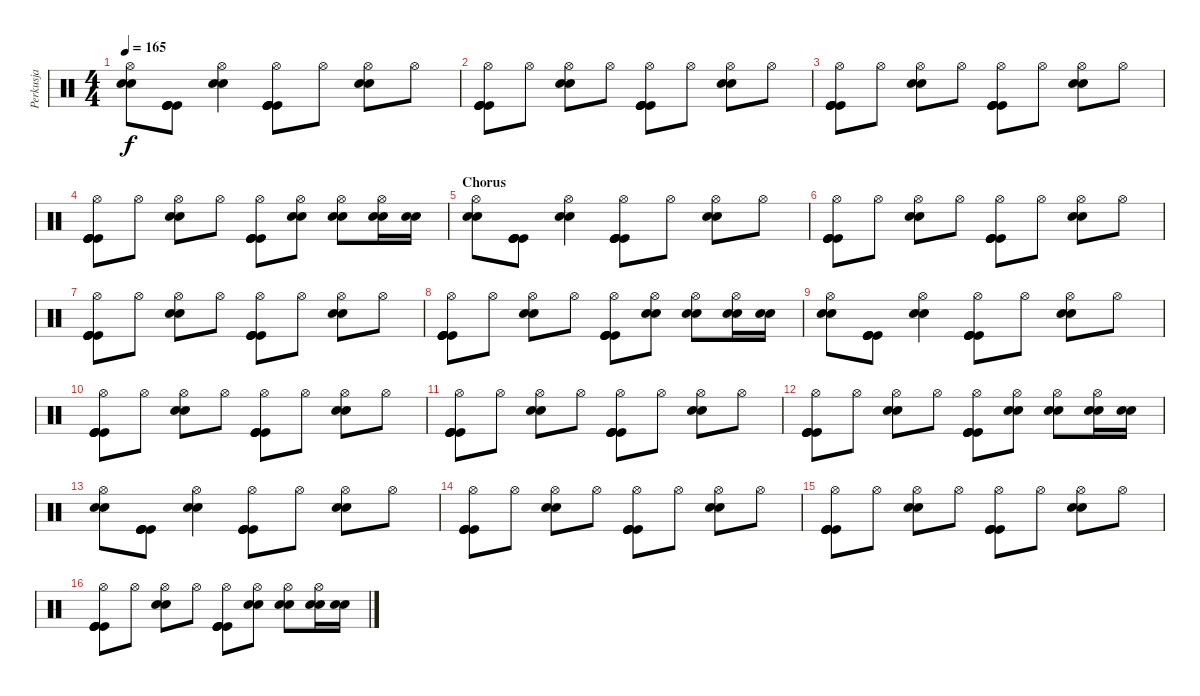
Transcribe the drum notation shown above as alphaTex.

\track ("Perkusja" "Perkusja") {instrument percussion}
\staff {score}
\articulation defaults
\ts (4 4)
\tempo 165
\clef neutral
\ks c
("Hi-Hat (open)" "Snare (hit) 2" "Snare (hit) 2").8{dy f} ("Kick (hit)" "Kick (hit)" "Kick (hit)" "Kick (hit)").8 ("Hi-Hat (open)" "Snare (hit) 2" "Snare (hit) 2").4 ("Hi-Hat (open)" "Kick (hit)" "Kick (hit)" "Kick (hit)" "Kick (hit)").8 "Hi-Hat (open)".8 ("Hi-Hat (open)" "Snare (hit) 2" "Snare (hit) 2").8 "Hi-Hat (open)".8 |
("Hi-Hat (open)" "Kick (hit)" "Kick (hit)" "Kick (hit)" "Kick (hit)").8 "Hi-Hat (open)".8 ("Hi-Hat (open)" "Snare (hit) 2" "Snare (hit) 2").8 "Hi-Hat (open)".8 ("Hi-Hat (open)" "Kick (hit)" "Kick (hit)" "Kick (hit)" "Kick (hit)").8 "Hi-Hat (open)".8 ("Hi-Hat (open)" "Snare (hit) 2" "Snare (hit) 2").8 "Hi-Hat (open)".8 |
("Hi-Hat (open)" "Kick (hit)" "Kick (hit)" "Kick (hit)" "Kick (hit)").8 "Hi-Hat (open)".8 ("Hi-Hat (open)" "Snare (hit) 2" "Snare (hit) 2").8 "Hi-Hat (open)".8 ("Hi-Hat (open)" "Kick (hit)" "Kick (hit)" "Kick (hit)" "Kick (hit)").8 "Hi-Hat (open)".8 ("Hi-Hat (open)" "Snare (hit) 2" "Snare (hit) 2").8 "Hi-Hat (open)".8 |
("Hi-Hat (open)" "Kick (hit)" "Kick (hit)" "Kick (hit)" "Kick (hit)").8 "Hi-Hat (open)".8 ("Hi-Hat (open)" "Snare (hit) 2" "Snare (hit) 2").8 "Hi-Hat (open)".8 ("Hi-Hat (open)" "Kick (hit)" "Kick (hit)" "Kick (hit)" "Kick (hit)").8 ("Hi-Hat (open)" "Snare (hit) 2" "Snare (hit) 2").8 ("Hi-Hat (open)" "Snare (hit) 2" "Snare (hit) 2").8 ("Hi-Hat (open)" "Snare (hit) 2" "Snare (hit) 2").16 ("Snare (hit) 2" "Snare (hit) 2").16 |
\section ("" "Chorus")
("Hi-Hat (open)" "Snare (hit) 2" "Snare (hit) 2").8 ("Kick (hit)" "Kick (hit)" "Kick (hit)" "Kick (hit)").8 ("Hi-Hat (open)" "Snare (hit) 2" "Snare (hit) 2").4 ("Hi-Hat (open)" "Kick (hit)" "Kick (hit)" "Kick (hit)" "Kick (hit)").8 "Hi-Hat (open)".8 ("Hi-Hat (open)" "Snare (hit) 2" "Snare (hit) 2").8 "Hi-Hat (open)".8 |
("Hi-Hat (open)" "Kick (hit)" "Kick (hit)" "Kick (hit)" "Kick (hit)").8 "Hi-Hat (open)".8 ("Hi-Hat (open)" "Snare (hit) 2" "Snare (hit) 2").8 "Hi-Hat (open)".8 ("Hi-Hat (open)" "Kick (hit)" "Kick (hit)" "Kick (hit)" "Kick (hit)").8 "Hi-Hat (open)".8 ("Hi-Hat (open)" "Snare (hit) 2" "Snare (hit) 2").8 "Hi-Hat (open)".8 |
("Hi-Hat (open)" "Kick (hit)" "Kick (hit)" "Kick (hit)" "Kick (hit)").8 "Hi-Hat (open)".8 ("Hi-Hat (open)" "Snare (hit) 2" "Snare (hit) 2").8 "Hi-Hat (open)".8 ("Hi-Hat (open)" "Kick (hit)" "Kick (hit)" "Kick (hit)" "Kick (hit)").8 "Hi-Hat (open)".8 ("Hi-Hat (open)" "Snare (hit) 2" "Snare (hit) 2").8 "Hi-Hat (open)".8 |
("Hi-Hat (open)" "Kick (hit)" "Kick (hit)" "Kick (hit)" "Kick (hit)").8 "Hi-Hat (open)".8 ("Hi-Hat (open)" "Snare (hit) 2" "Snare (hit) 2").8 "Hi-Hat (open)".8 ("Hi-Hat (open)" "Kick (hit)" "Kick (hit)" "Kick (hit)" "Kick (hit)").8 ("Hi-Hat (open)" "Snare (hit) 2" "Snare (hit) 2").8 ("Hi-Hat (open)" "Snare (hit) 2" "Snare (hit) 2").8 ("Hi-Hat (open)" "Snare (hit) 2" "Snare (hit) 2").16 ("Snare (hit) 2" "Snare (hit) 2").16 |
("Hi-Hat (open)" "Snare (hit) 2" "Snare (hit) 2").8 ("Kick (hit)" "Kick (hit)" "Kick (hit)" "Kick (hit)").8 ("Hi-Hat (open)" "Snare (hit) 2" "Snare (hit) 2").4 ("Hi-Hat (open)" "Kick (hit)" "Kick (hit)" "Kick (hit)" "Kick (hit)").8 "Hi-Hat (open)".8 ("Hi-Hat (open)" "Snare (hit) 2" "Snare (hit) 2").8 "Hi-Hat (open)".8 |
("Hi-Hat (open)" "Kick (hit)" "Kick (hit)" "Kick (hit)" "Kick (hit)").8 "Hi-Hat (open)".8 ("Hi-Hat (open)" "Snare (hit) 2" "Snare (hit) 2").8 "Hi-Hat (open)".8 ("Hi-Hat (open)" "Kick (hit)" "Kick (hit)" "Kick (hit)" "Kick (hit)").8 "Hi-Hat (open)".8 ("Hi-Hat (open)" "Snare (hit) 2" "Snare (hit) 2").8 "Hi-Hat (open)".8 |
("Hi-Hat (open)" "Kick (hit)" "Kick (hit)" "Kick (hit)" "Kick (hit)").8 "Hi-Hat (open)".8 ("Hi-Hat (open)" "Snare (hit) 2" "Snare (hit) 2").8 "Hi-Hat (open)".8 ("Hi-Hat (open)" "Kick (hit)" "Kick (hit)" "Kick (hit)" "Kick (hit)").8 "Hi-Hat (open)".8 ("Hi-Hat (open)" "Snare (hit) 2" "Snare (hit) 2").8 "Hi-Hat (open)".8 |
("Hi-Hat (open)" "Kick (hit)" "Kick (hit)" "Kick (hit)" "Kick (hit)").8 "Hi-Hat (open)".8 ("Hi-Hat (open)" "Snare (hit) 2" "Snare (hit) 2").8 "Hi-Hat (open)".8 ("Hi-Hat (open)" "Kick (hit)" "Kick (hit)" "Kick (hit)" "Kick (hit)").8 ("Hi-Hat (open)" "Snare (hit) 2" "Snare (hit) 2").8 ("Hi-Hat (open)" "Snare (hit) 2" "Snare (hit) 2").8 ("Hi-Hat (open)" "Snare (hit) 2" "Snare (hit) 2").16 ("Snare (hit) 2" "Snare (hit) 2").16 |
("Hi-Hat (open)" "Snare (hit) 2" "Snare (hit) 2").8 ("Kick (hit)" "Kick (hit)" "Kick (hit)" "Kick (hit)").8 ("Hi-Hat (open)" "Snare (hit) 2" "Snare (hit) 2").4 ("Hi-Hat (open)" "Kick (hit)" "Kick (hit)" "Kick (hit)" "Kick (hit)").8 "Hi-Hat (open)".8 ("Hi-Hat (open)" "Snare (hit) 2" "Snare (hit) 2").8 "Hi-Hat (open)".8 |
("Hi-Hat (open)" "Kick (hit)" "Kick (hit)" "Kick (hit)" "Kick (hit)").8 "Hi-Hat (open)".8 ("Hi-Hat (open)" "Snare (hit) 2" "Snare (hit) 2").8 "Hi-Hat (open)".8 ("Hi-Hat (open)" "Kick (hit)" "Kick (hit)" "Kick (hit)" "Kick (hit)").8 "Hi-Hat (open)".8 ("Hi-Hat (open)" "Snare (hit) 2" "Snare (hit) 2").8 "Hi-Hat (open)".8 |
("Hi-Hat (open)" "Kick (hit)" "Kick (hit)" "Kick (hit)" "Kick (hit)").8 "Hi-Hat (open)".8 ("Hi-Hat (open)" "Snare (hit) 2" "Snare (hit) 2").8 "Hi-Hat (open)".8 ("Hi-Hat (open)" "Kick (hit)" "Kick (hit)" "Kick (hit)" "Kick (hit)").8 "Hi-Hat (open)".8 ("Hi-Hat (open)" "Snare (hit) 2" "Snare (hit) 2").8 "Hi-Hat (open)".8 |
("Hi-Hat (open)" "Kick (hit)" "Kick (hit)" "Kick (hit)" "Kick (hit)").8 "Hi-Hat (open)".8 ("Hi-Hat (open)" "Snare (hit) 2" "Snare (hit) 2").8 "Hi-Hat (open)".8 ("Hi-Hat (open)" "Kick (hit)" "Kick (hit)" "Kick (hit)" "Kick (hit)").8 ("Hi-Hat (open)" "Snare (hit) 2" "Snare (hit) 2").8 ("Hi-Hat (open)" "Snare (hit) 2" "Snare (hit) 2").8 ("Hi-Hat (open)" "Snare (hit) 2" "Snare (hit) 2").16 ("Snare (hit) 2" "Snare (hit) 2").16
